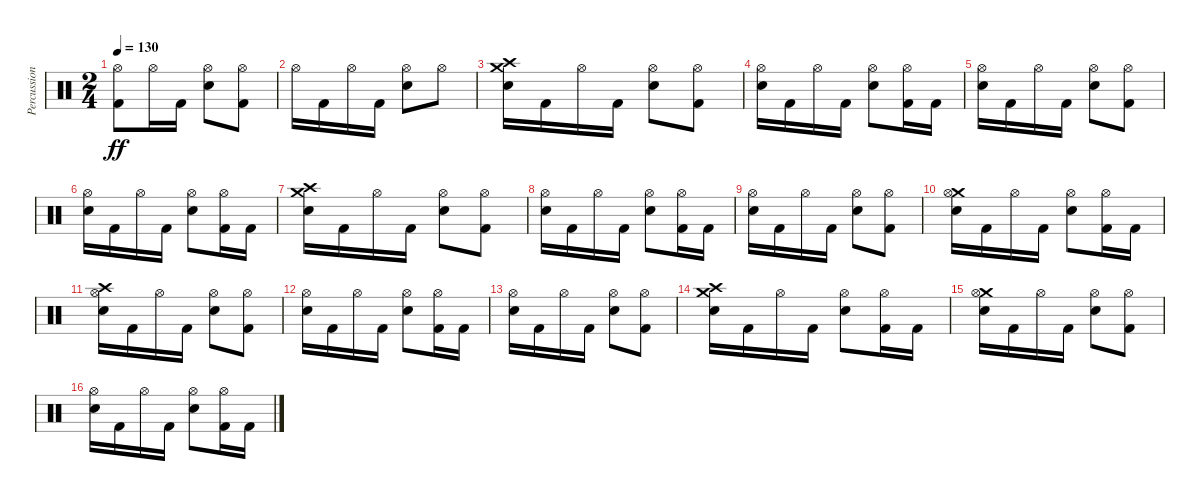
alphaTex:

\track ("Percussion" "Percussion") {instrument percussion}
\staff {score}
\articulation defaults
\ts (2 4)
\tempo 130
\clef neutral
\ks c
("Hi-Hat (open)" "Kick (hit) 2").8{dy ff} "Hi-Hat (open)".16 "Kick (hit) 2".16 ("Hi-Hat (open)" "Snare (hit) 2").8 ("Hi-Hat (open)" "Kick (hit) 2").8 |
"Hi-Hat (open)".16 "Kick (hit) 2".16 "Hi-Hat (open)".16 "Kick (hit) 2".16 ("Hi-Hat (open)" "Snare (hit) 2").8 "Hi-Hat (open)".8 |
("Crash high (hit)" "Crash medium (hit)" "Snare (hit) 2").16 "Kick (hit) 2".16 "Hi-Hat (open)".16 "Kick (hit) 2".16 ("Hi-Hat (open)" "Snare (hit) 2").8 ("Hi-Hat (open)" "Kick (hit) 2").8 |
("Hi-Hat (open)" "Snare (hit) 2").16 "Kick (hit) 2".16 "Hi-Hat (open)".16 "Kick (hit) 2".16 ("Hi-Hat (open)" "Snare (hit) 2").8 ("Hi-Hat (open)" "Kick (hit) 2").16 "Kick (hit) 2".16 |
("Hi-Hat (open)" "Snare (hit) 2").16 "Kick (hit) 2".16 "Hi-Hat (open)".16 "Kick (hit) 2".16 ("Hi-Hat (open)" "Snare (hit) 2").8 ("Hi-Hat (open)" "Kick (hit) 2").8 |
("Hi-Hat (open)" "Snare (hit) 2").16 "Kick (hit) 2".16 "Hi-Hat (open)".16 "Kick (hit) 2".16 ("Hi-Hat (open)" "Snare (hit) 2").8 ("Hi-Hat (open)" "Kick (hit) 2").16 "Kick (hit) 2".16 |
("Crash high (hit)" "Crash medium (hit)" "Snare (hit) 2").16 "Kick (hit) 2".16 "Hi-Hat (open)".16 "Kick (hit) 2".16 ("Hi-Hat (open)" "Snare (hit) 2").8 ("Hi-Hat (open)" "Kick (hit) 2").8 |
("Hi-Hat (open)" "Snare (hit) 2").16 "Kick (hit) 2".16 "Hi-Hat (open)".16 "Kick (hit) 2".16 ("Hi-Hat (open)" "Snare (hit) 2").8 ("Hi-Hat (open)" "Kick (hit) 2").16 "Kick (hit) 2".16 |
("Hi-Hat (open)" "Snare (hit) 2").16 "Kick (hit) 2".16 "Hi-Hat (open)".16 "Kick (hit) 2".16 ("Hi-Hat (open)" "Snare (hit) 2").8 ("Hi-Hat (open)" "Kick (hit) 2").8 |
("Crash medium (hit)" "Hi-Hat (open)" "Snare (hit) 2").16 "Kick (hit) 2".16 "Hi-Hat (open)".16 "Kick (hit) 2".16 ("Hi-Hat (open)" "Snare (hit) 2").8 ("Hi-Hat (open)" "Kick (hit) 2").16 "Kick (hit) 2".16 |
("Crash high (hit)" "Hi-Hat (open)" "Snare (hit) 2").16 "Kick (hit) 2".16 "Hi-Hat (open)".16 "Kick (hit) 2".16 ("Hi-Hat (open)" "Snare (hit) 2").8 ("Hi-Hat (open)" "Kick (hit) 2").8 |
("Hi-Hat (open)" "Snare (hit) 2").16 "Kick (hit) 2".16 "Hi-Hat (open)".16 "Kick (hit) 2".16 ("Hi-Hat (open)" "Snare (hit) 2").8 ("Hi-Hat (open)" "Kick (hit) 2").16 "Kick (hit) 2".16 |
("Hi-Hat (open)" "Snare (hit) 2").16 "Kick (hit) 2".16 "Hi-Hat (open)".16 "Kick (hit) 2".16 ("Hi-Hat (open)" "Snare (hit) 2").8 ("Hi-Hat (open)" "Kick (hit) 2").8 |
("Crash medium (hit)" "Crash high (hit)" "Snare (hit) 2").16 "Kick (hit) 2".16 "Hi-Hat (open)".16 "Kick (hit) 2".16 ("Hi-Hat (open)" "Snare (hit) 2").8 ("Hi-Hat (open)" "Kick (hit) 2").16 "Kick (hit) 2".16 |
("Crash medium (hit)" "Hi-Hat (open)" "Snare (hit) 2").16 "Kick (hit) 2".16 "Hi-Hat (open)".16 "Kick (hit) 2".16 ("Hi-Hat (open)" "Snare (hit) 2").8 ("Hi-Hat (open)" "Kick (hit) 2").8 |
("Hi-Hat (open)" "Snare (hit) 2").16 "Kick (hit) 2".16 "Hi-Hat (open)".16 "Kick (hit) 2".16 ("Hi-Hat (open)" "Snare (hit) 2").8 ("Hi-Hat (open)" "Kick (hit) 2").16 "Kick (hit) 2".16
